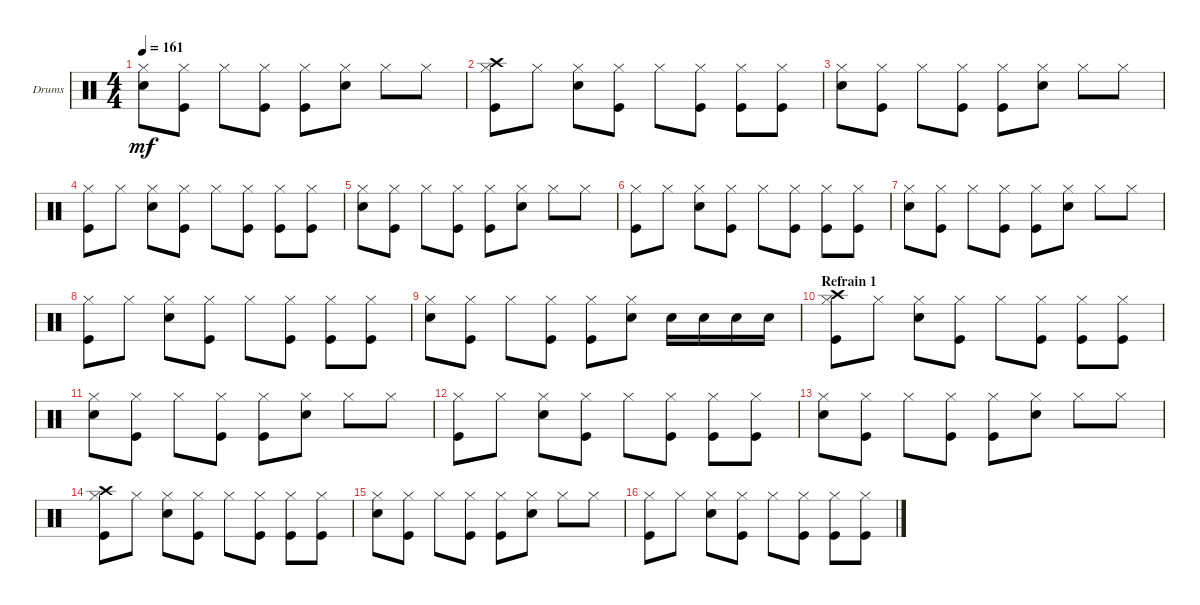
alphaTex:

\defaultSystemsLayout 4
\bracketExtendMode groupsimilarinstruments
\firstSystemTrackNameOrientation horizontal
\otherSystemsTrackNameOrientation horizontal
\chordDiagramsInScore
\track ("Drumkit" "Drums") {instrument percussion}
\staff {score}
\articulation defaults
\ts (4 4)
\tempo 161
\clef neutral
\ks c
("Hi-Hat (closed)" "Snare (hit) 2").8{dy mf} ("Hi-Hat (closed)" "Kick (hit)").8 "Hi-Hat (closed)".8 ("Hi-Hat (closed)" "Kick (hit)").8 ("Hi-Hat (closed)" "Kick (hit)").8 ("Hi-Hat (closed)" "Snare (hit) 2").8 "Hi-Hat (closed)".8 "Hi-Hat (closed)".8 |
("Hi-Hat (closed)" "Kick (hit)" "Crash high (hit)").8 "Hi-Hat (closed)".8 ("Hi-Hat (closed)" "Snare (hit) 2").8 ("Hi-Hat (closed)" "Kick (hit)").8 "Hi-Hat (closed)".8 ("Hi-Hat (closed)" "Kick (hit)").8 ("Hi-Hat (closed)" "Kick (hit)").8 ("Hi-Hat (closed)" "Kick (hit)").8 |
("Hi-Hat (closed)" "Snare (hit) 2").8 ("Hi-Hat (closed)" "Kick (hit)").8 "Hi-Hat (closed)".8 ("Hi-Hat (closed)" "Kick (hit)").8 ("Hi-Hat (closed)" "Kick (hit)").8 ("Hi-Hat (closed)" "Snare (hit) 2").8 "Hi-Hat (closed)".8 "Hi-Hat (closed)".8 |
("Hi-Hat (closed)" "Kick (hit)").8 "Hi-Hat (closed)".8 ("Hi-Hat (closed)" "Snare (hit) 2").8 ("Hi-Hat (closed)" "Kick (hit)").8 "Hi-Hat (closed)".8 ("Hi-Hat (closed)" "Kick (hit)").8 ("Hi-Hat (closed)" "Kick (hit)").8 ("Hi-Hat (closed)" "Kick (hit)").8 |
("Hi-Hat (closed)" "Snare (hit) 2").8 ("Hi-Hat (closed)" "Kick (hit)").8 "Hi-Hat (closed)".8 ("Hi-Hat (closed)" "Kick (hit)").8 ("Hi-Hat (closed)" "Kick (hit)").8 ("Hi-Hat (closed)" "Snare (hit) 2").8 "Hi-Hat (closed)".8 "Hi-Hat (closed)".8 |
("Hi-Hat (closed)" "Kick (hit)").8 "Hi-Hat (closed)".8 ("Hi-Hat (closed)" "Snare (hit) 2").8 ("Hi-Hat (closed)" "Kick (hit)").8 "Hi-Hat (closed)".8 ("Hi-Hat (closed)" "Kick (hit)").8 ("Hi-Hat (closed)" "Kick (hit)").8 ("Hi-Hat (closed)" "Kick (hit)").8 |
("Hi-Hat (closed)" "Snare (hit) 2").8 ("Hi-Hat (closed)" "Kick (hit)").8 "Hi-Hat (closed)".8 ("Hi-Hat (closed)" "Kick (hit)").8 ("Hi-Hat (closed)" "Kick (hit)").8 ("Hi-Hat (closed)" "Snare (hit) 2").8 "Hi-Hat (closed)".8 "Hi-Hat (closed)".8 |
("Hi-Hat (closed)" "Kick (hit)").8 "Hi-Hat (closed)".8 ("Hi-Hat (closed)" "Snare (hit) 2").8 ("Hi-Hat (closed)" "Kick (hit)").8 "Hi-Hat (closed)".8 ("Hi-Hat (closed)" "Kick (hit)").8 ("Hi-Hat (closed)" "Kick (hit)").8 ("Hi-Hat (closed)" "Kick (hit)").8 |
("Hi-Hat (closed)" "Snare (hit) 2").8 ("Hi-Hat (closed)" "Kick (hit)").8 "Hi-Hat (closed)".8 ("Hi-Hat (closed)" "Kick (hit)").8 ("Hi-Hat (closed)" "Kick (hit)").8 ("Hi-Hat (closed)" "Snare (hit) 2").8 "Snare (hit) 2".16 "Snare (hit) 2".16 "Snare (hit) 2".16 "Snare (hit) 2".16 |
\section ("" "Refrain 1")
("Hi-Hat (closed)" "Kick (hit)" "Crash high (hit)").8 "Hi-Hat (closed)".8 ("Hi-Hat (closed)" "Snare (hit) 2").8 ("Hi-Hat (closed)" "Kick (hit)").8 "Hi-Hat (closed)".8 ("Hi-Hat (closed)" "Kick (hit)").8 ("Hi-Hat (closed)" "Kick (hit)").8 ("Hi-Hat (closed)" "Kick (hit)").8 |
("Hi-Hat (closed)" "Snare (hit) 2").8 ("Hi-Hat (closed)" "Kick (hit)").8 "Hi-Hat (closed)".8 ("Hi-Hat (closed)" "Kick (hit)").8 ("Hi-Hat (closed)" "Kick (hit)").8 ("Hi-Hat (closed)" "Snare (hit) 2").8 "Hi-Hat (closed)".8 "Hi-Hat (closed)".8 |
("Hi-Hat (closed)" "Kick (hit)").8 "Hi-Hat (closed)".8 ("Hi-Hat (closed)" "Snare (hit) 2").8 ("Hi-Hat (closed)" "Kick (hit)").8 "Hi-Hat (closed)".8 ("Hi-Hat (closed)" "Kick (hit)").8 ("Hi-Hat (closed)" "Kick (hit)").8 ("Hi-Hat (closed)" "Kick (hit)").8 |
("Hi-Hat (closed)" "Snare (hit) 2").8 ("Hi-Hat (closed)" "Kick (hit)").8 "Hi-Hat (closed)".8 ("Hi-Hat (closed)" "Kick (hit)").8 ("Hi-Hat (closed)" "Kick (hit)").8 ("Hi-Hat (closed)" "Snare (hit) 2").8 "Hi-Hat (closed)".8 "Hi-Hat (closed)".8 |
("Hi-Hat (closed)" "Kick (hit)" "Crash high (hit)").8 "Hi-Hat (closed)".8 ("Hi-Hat (closed)" "Snare (hit) 2").8 ("Hi-Hat (closed)" "Kick (hit)").8 "Hi-Hat (closed)".8 ("Hi-Hat (closed)" "Kick (hit)").8 ("Hi-Hat (closed)" "Kick (hit)").8 ("Hi-Hat (closed)" "Kick (hit)").8 |
("Hi-Hat (closed)" "Snare (hit) 2").8 ("Hi-Hat (closed)" "Kick (hit)").8 "Hi-Hat (closed)".8 ("Hi-Hat (closed)" "Kick (hit)").8 ("Hi-Hat (closed)" "Kick (hit)").8 ("Hi-Hat (closed)" "Snare (hit) 2").8 "Hi-Hat (closed)".8 "Hi-Hat (closed)".8 |
("Hi-Hat (closed)" "Kick (hit)").8 "Hi-Hat (closed)".8 ("Hi-Hat (closed)" "Snare (hit) 2").8 ("Hi-Hat (closed)" "Kick (hit)").8 "Hi-Hat (closed)".8 ("Hi-Hat (closed)" "Kick (hit)").8 ("Hi-Hat (closed)" "Kick (hit)").8 ("Hi-Hat (closed)" "Kick (hit)").8
